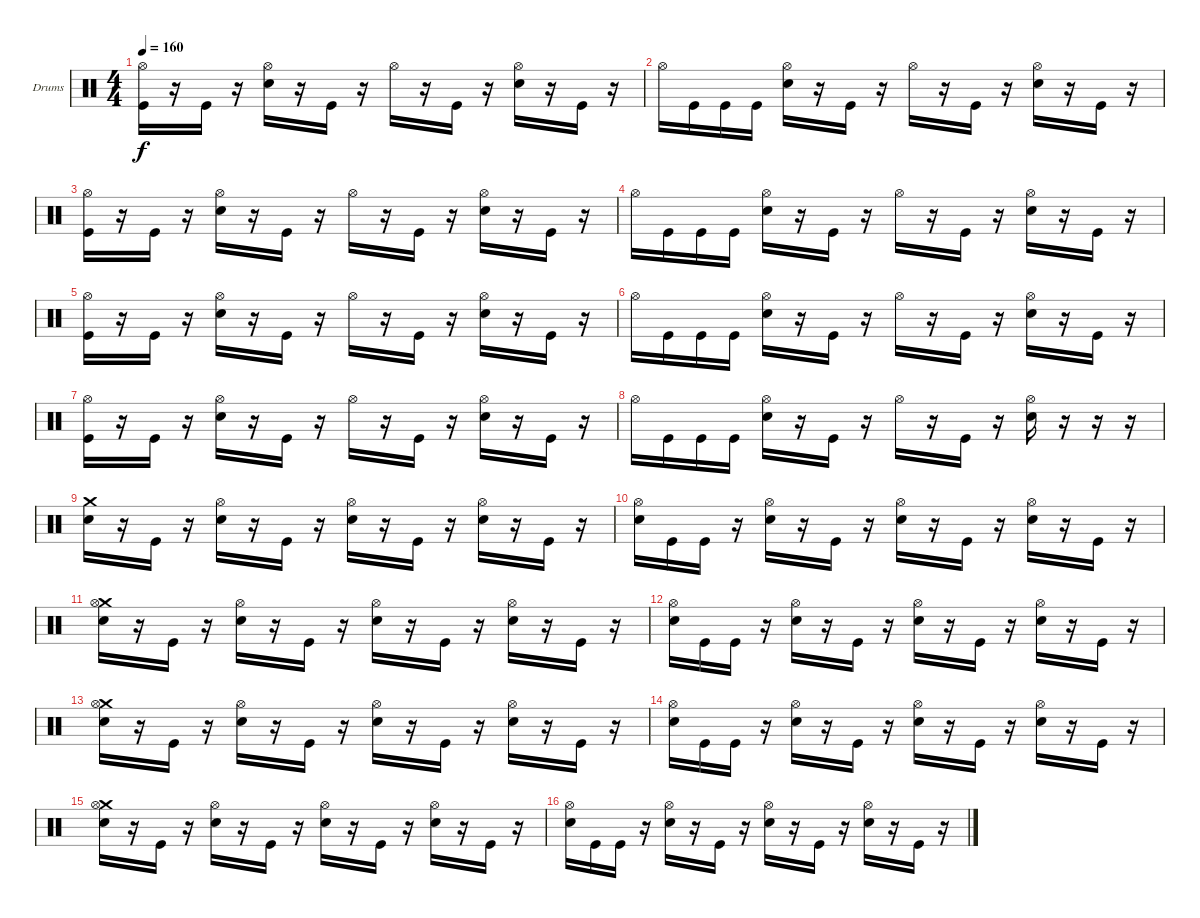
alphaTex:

\bracketExtendMode groupsimilarinstruments
\firstSystemTrackNameOrientation horizontal
\otherSystemsTrackNameOrientation horizontal
\track ("Drumkit" "Drums") {instrument percussion}
\staff {score}
\articulation defaults
\ts (4 4)
\tempo 160
\clef neutral
\ks c
("Hi-Hat (open)" "Kick (hit)").16{dy f} r.16 "Kick (hit)".16 r.16 ("Hi-Hat (open)" "Snare (hit) 2").16 r.16 "Kick (hit)".16 r.16 "Hi-Hat (open)".16 r.16 "Kick (hit)".16 r.16 ("Hi-Hat (open)" "Snare (hit) 2").16 r.16 "Kick (hit)".16 r.16 |
"Hi-Hat (open)".16 "Kick (hit)".16 "Kick (hit)".16 "Kick (hit)".16 ("Hi-Hat (open)" "Snare (hit) 2").16 r.16 "Kick (hit)".16 r.16 "Hi-Hat (open)".16 r.16 "Kick (hit)".16 r.16 ("Hi-Hat (open)" "Snare (hit) 2").16 r.16 "Kick (hit)".16 r.16 |
("Hi-Hat (open)" "Kick (hit)").16 r.16 "Kick (hit)".16 r.16 ("Hi-Hat (open)" "Snare (hit) 2").16 r.16 "Kick (hit)".16 r.16 "Hi-Hat (open)".16 r.16 "Kick (hit)".16 r.16 ("Hi-Hat (open)" "Snare (hit) 2").16 r.16 "Kick (hit)".16 r.16 |
"Hi-Hat (open)".16 "Kick (hit)".16 "Kick (hit)".16 "Kick (hit)".16 ("Hi-Hat (open)" "Snare (hit) 2").16 r.16 "Kick (hit)".16 r.16 "Hi-Hat (open)".16 r.16 "Kick (hit)".16 r.16 ("Hi-Hat (open)" "Snare (hit) 2").16 r.16 "Kick (hit)".16 r.16 |
("Hi-Hat (open)" "Kick (hit)").16 r.16 "Kick (hit)".16 r.16 ("Hi-Hat (open)" "Snare (hit) 2").16 r.16 "Kick (hit)".16 r.16 "Hi-Hat (open)".16 r.16 "Kick (hit)".16 r.16 ("Hi-Hat (open)" "Snare (hit) 2").16 r.16 "Kick (hit)".16 r.16 |
"Hi-Hat (open)".16 "Kick (hit)".16 "Kick (hit)".16 "Kick (hit)".16 ("Hi-Hat (open)" "Snare (hit) 2").16 r.16 "Kick (hit)".16 r.16 "Hi-Hat (open)".16 r.16 "Kick (hit)".16 r.16 ("Hi-Hat (open)" "Snare (hit) 2").16 r.16 "Kick (hit)".16 r.16 |
("Hi-Hat (open)" "Kick (hit)").16 r.16 "Kick (hit)".16 r.16 ("Hi-Hat (open)" "Snare (hit) 2").16 r.16 "Kick (hit)".16 r.16 "Hi-Hat (open)".16 r.16 "Kick (hit)".16 r.16 ("Hi-Hat (open)" "Snare (hit) 2").16 r.16 "Kick (hit)".16 r.16 |
"Hi-Hat (open)".16 "Kick (hit)".16 "Kick (hit)".16 "Kick (hit)".16 ("Hi-Hat (open)" "Snare (hit) 2").16 r.16 "Kick (hit)".16 r.16 "Hi-Hat (open)".16 r.16 "Kick (hit)".16 r.16 ("Hi-Hat (open)" "Snare (hit) 2").16 r.16 r.16 r.16 |
("Crash medium (hit)" "Snare (hit) 2").16 r.16 "Kick (hit)".16 r.16 ("Hi-Hat (open)" "Snare (hit) 2").16 r.16 "Kick (hit)".16 r.16 ("Hi-Hat (open)" "Snare (hit) 2").16 r.16 "Kick (hit)".16 r.16 ("Hi-Hat (open)" "Snare (hit) 2").16 r.16 "Kick (hit)".16 r.16 |
("Hi-Hat (open)" "Snare (hit) 2").16 "Kick (hit)".16 "Kick (hit)".16 r.16 ("Hi-Hat (open)" "Snare (hit) 2").16 r.16 "Kick (hit)".16 r.16 ("Hi-Hat (open)" "Snare (hit) 2").16 r.16 "Kick (hit)".16 r.16 ("Hi-Hat (open)" "Snare (hit) 2").16 r.16 "Kick (hit)".16 r.16 |
("Crash medium (hit)" "Hi-Hat (open)" "Snare (hit) 2").16 r.16 "Kick (hit)".16 r.16 ("Hi-Hat (open)" "Snare (hit) 2").16 r.16 "Kick (hit)".16 r.16 ("Hi-Hat (open)" "Snare (hit) 2").16 r.16 "Kick (hit)".16 r.16 ("Hi-Hat (open)" "Snare (hit) 2").16 r.16 "Kick (hit)".16 r.16 |
("Hi-Hat (open)" "Snare (hit) 2").16 "Kick (hit)".16 "Kick (hit)".16 r.16 ("Hi-Hat (open)" "Snare (hit) 2").16 r.16 "Kick (hit)".16 r.16 ("Hi-Hat (open)" "Snare (hit) 2").16 r.16 "Kick (hit)".16 r.16 ("Hi-Hat (open)" "Snare (hit) 2").16 r.16 "Kick (hit)".16 r.16 |
("Crash medium (hit)" "Hi-Hat (open)" "Snare (hit) 2").16 r.16 "Kick (hit)".16 r.16 ("Hi-Hat (open)" "Snare (hit) 2").16 r.16 "Kick (hit)".16 r.16 ("Hi-Hat (open)" "Snare (hit) 2").16 r.16 "Kick (hit)".16 r.16 ("Hi-Hat (open)" "Snare (hit) 2").16 r.16 "Kick (hit)".16 r.16 |
("Hi-Hat (open)" "Snare (hit) 2").16 "Kick (hit)".16 "Kick (hit)".16 r.16 ("Hi-Hat (open)" "Snare (hit) 2").16 r.16 "Kick (hit)".16 r.16 ("Hi-Hat (open)" "Snare (hit) 2").16 r.16 "Kick (hit)".16 r.16 ("Hi-Hat (open)" "Snare (hit) 2").16 r.16 "Kick (hit)".16 r.16 |
("Crash medium (hit)" "Hi-Hat (open)" "Snare (hit) 2").16 r.16 "Kick (hit)".16 r.16 ("Hi-Hat (open)" "Snare (hit) 2").16 r.16 "Kick (hit)".16 r.16 ("Hi-Hat (open)" "Snare (hit) 2").16 r.16 "Kick (hit)".16 r.16 ("Hi-Hat (open)" "Snare (hit) 2").16 r.16 "Kick (hit)".16 r.16 |
("Hi-Hat (open)" "Snare (hit) 2").16 "Kick (hit)".16 "Kick (hit)".16 r.16 ("Hi-Hat (open)" "Snare (hit) 2").16 r.16 "Kick (hit)".16 r.16 ("Hi-Hat (open)" "Snare (hit) 2").16 r.16 "Kick (hit)".16 r.16 ("Hi-Hat (open)" "Snare (hit) 2").16 r.16 "Kick (hit)".16 r.16
